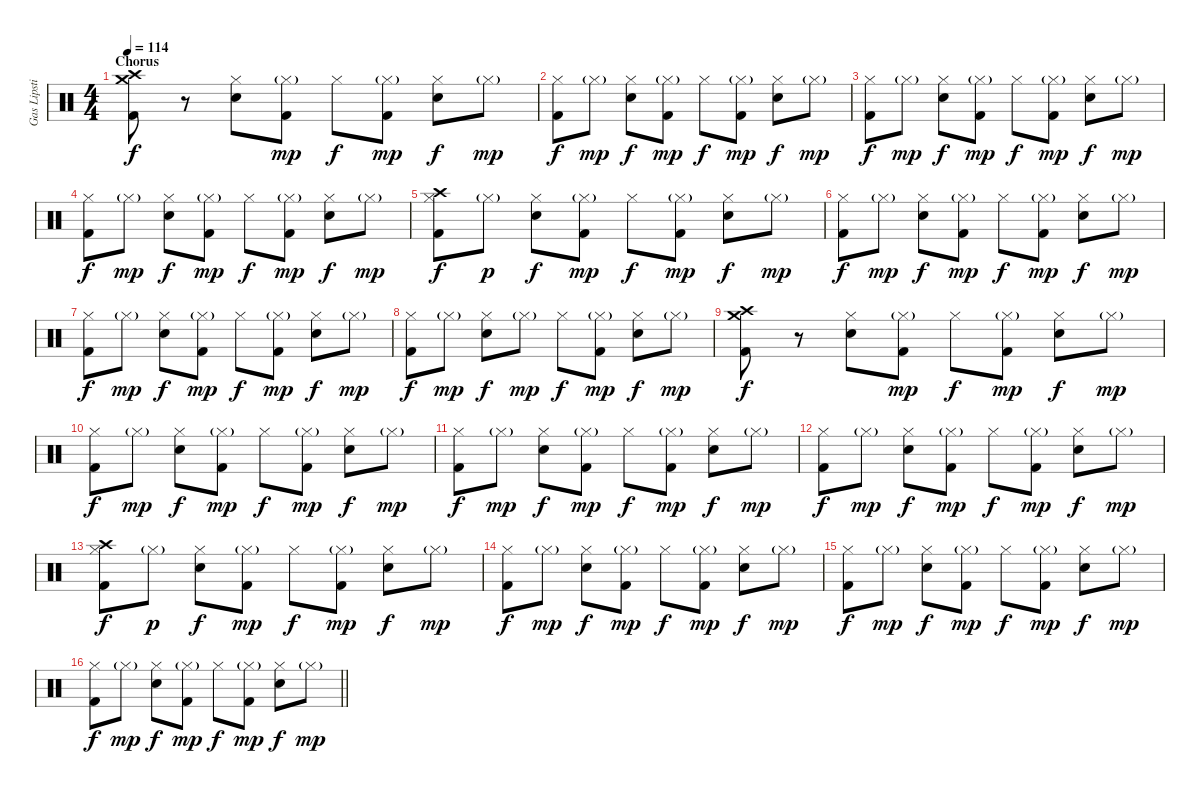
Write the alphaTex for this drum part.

\track ("Gas Lipstick (Drums)" "Gas Lipsti") {instrument percussion}
\staff {score}
\articulation defaults
\ts (4 4)
\section ("" "Chorus")
\tempo 114
\clef neutral
\ks c
("Crash medium (hit)" "Crash high (hit)" "Kick (hit) 2").8{dy f} r.8 ("Hi-Hat (closed)" "Snare (hit) 2").8 ("Hi-Hat (closed)"{g} "Kick (hit) 2").8{dy mp} "Hi-Hat (closed)".8{dy f} ("Hi-Hat (closed)"{g} "Kick (hit) 2").8{dy mp} ("Hi-Hat (closed)" "Snare (hit) 2").8{dy f} "Hi-Hat (closed)"{g}.8{dy mp} |
("Hi-Hat (closed)" "Kick (hit) 2").8{dy f} "Hi-Hat (closed)"{g}.8{dy mp} ("Hi-Hat (closed)" "Snare (hit) 2").8{dy f} ("Hi-Hat (closed)"{g} "Kick (hit) 2").8{dy mp} "Hi-Hat (closed)".8{dy f} ("Hi-Hat (closed)"{g} "Kick (hit) 2").8{dy mp} ("Hi-Hat (closed)" "Snare (hit) 2").8{dy f} "Hi-Hat (closed)"{g}.8{dy mp} |
("Hi-Hat (closed)" "Kick (hit) 2").8{dy f} "Hi-Hat (closed)"{g}.8{dy mp} ("Hi-Hat (closed)" "Snare (hit) 2").8{dy f} ("Hi-Hat (closed)"{g} "Kick (hit) 2").8{dy mp} "Hi-Hat (closed)".8{dy f} ("Hi-Hat (closed)"{g} "Kick (hit) 2").8{dy mp} ("Hi-Hat (closed)" "Snare (hit) 2").8{dy f} "Hi-Hat (closed)"{g}.8{dy mp} |
("Hi-Hat (closed)" "Kick (hit) 2").8{dy f} "Hi-Hat (closed)"{g}.8{dy mp} ("Hi-Hat (closed)" "Snare (hit) 2").8{dy f} ("Hi-Hat (closed)"{g} "Kick (hit) 2").8{dy mp} "Hi-Hat (closed)".8{dy f} ("Hi-Hat (closed)"{g} "Kick (hit) 2").8{dy mp} ("Hi-Hat (closed)" "Snare (hit) 2").8{dy f} "Hi-Hat (closed)"{g}.8{dy mp} |
("Crash high (hit)" "Hi-Hat (closed)" "Kick (hit) 2").8{dy f} "Hi-Hat (closed)"{g}.8{dy p} ("Hi-Hat (closed)" "Snare (hit) 2").8{dy f} ("Hi-Hat (closed)"{g} "Kick (hit) 2").8{dy mp} "Hi-Hat (closed)".8{dy f} ("Hi-Hat (closed)"{g} "Kick (hit) 2").8{dy mp} ("Hi-Hat (closed)" "Snare (hit) 2").8{dy f} "Hi-Hat (closed)"{g}.8{dy mp} |
("Hi-Hat (closed)" "Kick (hit) 2").8{dy f} "Hi-Hat (closed)"{g}.8{dy mp} ("Hi-Hat (closed)" "Snare (hit) 2").8{dy f} ("Hi-Hat (closed)"{g} "Kick (hit) 2").8{dy mp} "Hi-Hat (closed)".8{dy f} ("Hi-Hat (closed)"{g} "Kick (hit) 2").8{dy mp} ("Hi-Hat (closed)" "Snare (hit) 2").8{dy f} "Hi-Hat (closed)"{g}.8{dy mp} |
("Hi-Hat (closed)" "Kick (hit) 2").8{dy f} "Hi-Hat (closed)"{g}.8{dy mp} ("Hi-Hat (closed)" "Snare (hit) 2").8{dy f} ("Hi-Hat (closed)"{g} "Kick (hit) 2").8{dy mp} "Hi-Hat (closed)".8{dy f} ("Hi-Hat (closed)"{g} "Kick (hit) 2").8{dy mp} ("Hi-Hat (closed)" "Snare (hit) 2").8{dy f} "Hi-Hat (closed)"{g}.8{dy mp} |
("Hi-Hat (closed)" "Kick (hit) 2").8{dy f} "Hi-Hat (closed)"{g}.8{dy mp} ("Hi-Hat (closed)" "Snare (hit) 2").8{dy f} "Hi-Hat (closed)"{g}.8{dy mp} "Hi-Hat (closed)".8{dy f} ("Hi-Hat (closed)"{g} "Kick (hit) 2").8{dy mp} ("Hi-Hat (closed)" "Snare (hit) 2").8{dy f} "Hi-Hat (closed)"{g}.8{dy mp} |
("Crash medium (hit)" "Crash high (hit)" "Kick (hit) 2").8{dy f} r.8 ("Hi-Hat (closed)" "Snare (hit) 2").8 ("Hi-Hat (closed)"{g} "Kick (hit) 2").8{dy mp} "Hi-Hat (closed)".8{dy f} ("Hi-Hat (closed)"{g} "Kick (hit) 2").8{dy mp} ("Hi-Hat (closed)" "Snare (hit) 2").8{dy f} "Hi-Hat (closed)"{g}.8{dy mp} |
("Hi-Hat (closed)" "Kick (hit) 2").8{dy f} "Hi-Hat (closed)"{g}.8{dy mp} ("Hi-Hat (closed)" "Snare (hit) 2").8{dy f} ("Hi-Hat (closed)"{g} "Kick (hit) 2").8{dy mp} "Hi-Hat (closed)".8{dy f} ("Hi-Hat (closed)"{g} "Kick (hit) 2").8{dy mp} ("Hi-Hat (closed)" "Snare (hit) 2").8{dy f} "Hi-Hat (closed)"{g}.8{dy mp} |
("Hi-Hat (closed)" "Kick (hit) 2").8{dy f} "Hi-Hat (closed)"{g}.8{dy mp} ("Hi-Hat (closed)" "Snare (hit) 2").8{dy f} ("Hi-Hat (closed)"{g} "Kick (hit) 2").8{dy mp} "Hi-Hat (closed)".8{dy f} ("Hi-Hat (closed)"{g} "Kick (hit) 2").8{dy mp} ("Hi-Hat (closed)" "Snare (hit) 2").8{dy f} "Hi-Hat (closed)"{g}.8{dy mp} |
("Hi-Hat (closed)" "Kick (hit) 2").8{dy f} "Hi-Hat (closed)"{g}.8{dy mp} ("Hi-Hat (closed)" "Snare (hit) 2").8{dy f} ("Hi-Hat (closed)"{g} "Kick (hit) 2").8{dy mp} "Hi-Hat (closed)".8{dy f} ("Hi-Hat (closed)"{g} "Kick (hit) 2").8{dy mp} ("Hi-Hat (closed)" "Snare (hit) 2").8{dy f} "Hi-Hat (closed)"{g}.8{dy mp} |
("Crash high (hit)" "Hi-Hat (closed)" "Kick (hit) 2").8{dy f} "Hi-Hat (closed)"{g}.8{dy p} ("Hi-Hat (closed)" "Snare (hit) 2").8{dy f} ("Hi-Hat (closed)"{g} "Kick (hit) 2").8{dy mp} "Hi-Hat (closed)".8{dy f} ("Hi-Hat (closed)"{g} "Kick (hit) 2").8{dy mp} ("Hi-Hat (closed)" "Snare (hit) 2").8{dy f} "Hi-Hat (closed)"{g}.8{dy mp} |
("Hi-Hat (closed)" "Kick (hit) 2").8{dy f} "Hi-Hat (closed)"{g}.8{dy mp} ("Hi-Hat (closed)" "Snare (hit) 2").8{dy f} ("Hi-Hat (closed)"{g} "Kick (hit) 2").8{dy mp} "Hi-Hat (closed)".8{dy f} ("Hi-Hat (closed)"{g} "Kick (hit) 2").8{dy mp} ("Hi-Hat (closed)" "Snare (hit) 2").8{dy f} "Hi-Hat (closed)"{g}.8{dy mp} |
("Hi-Hat (closed)" "Kick (hit) 2").8{dy f} "Hi-Hat (closed)"{g}.8{dy mp} ("Hi-Hat (closed)" "Snare (hit) 2").8{dy f} ("Hi-Hat (closed)"{g} "Kick (hit) 2").8{dy mp} "Hi-Hat (closed)".8{dy f} ("Hi-Hat (closed)"{g} "Kick (hit) 2").8{dy mp} ("Hi-Hat (closed)" "Snare (hit) 2").8{dy f} "Hi-Hat (closed)"{g}.8{dy mp} |
\barLineRight lightlight
("Hi-Hat (closed)" "Kick (hit) 2").8{dy f} "Hi-Hat (closed)"{g}.8{dy mp} ("Hi-Hat (closed)" "Snare (hit) 2").8{dy f} ("Hi-Hat (closed)"{g} "Kick (hit) 2").8{dy mp} "Hi-Hat (closed)".8{dy f} ("Hi-Hat (closed)"{g} "Kick (hit) 2").8{dy mp} ("Hi-Hat (closed)" "Snare (hit) 2").8{dy f} "Hi-Hat (closed)"{g}.8{dy mp}
